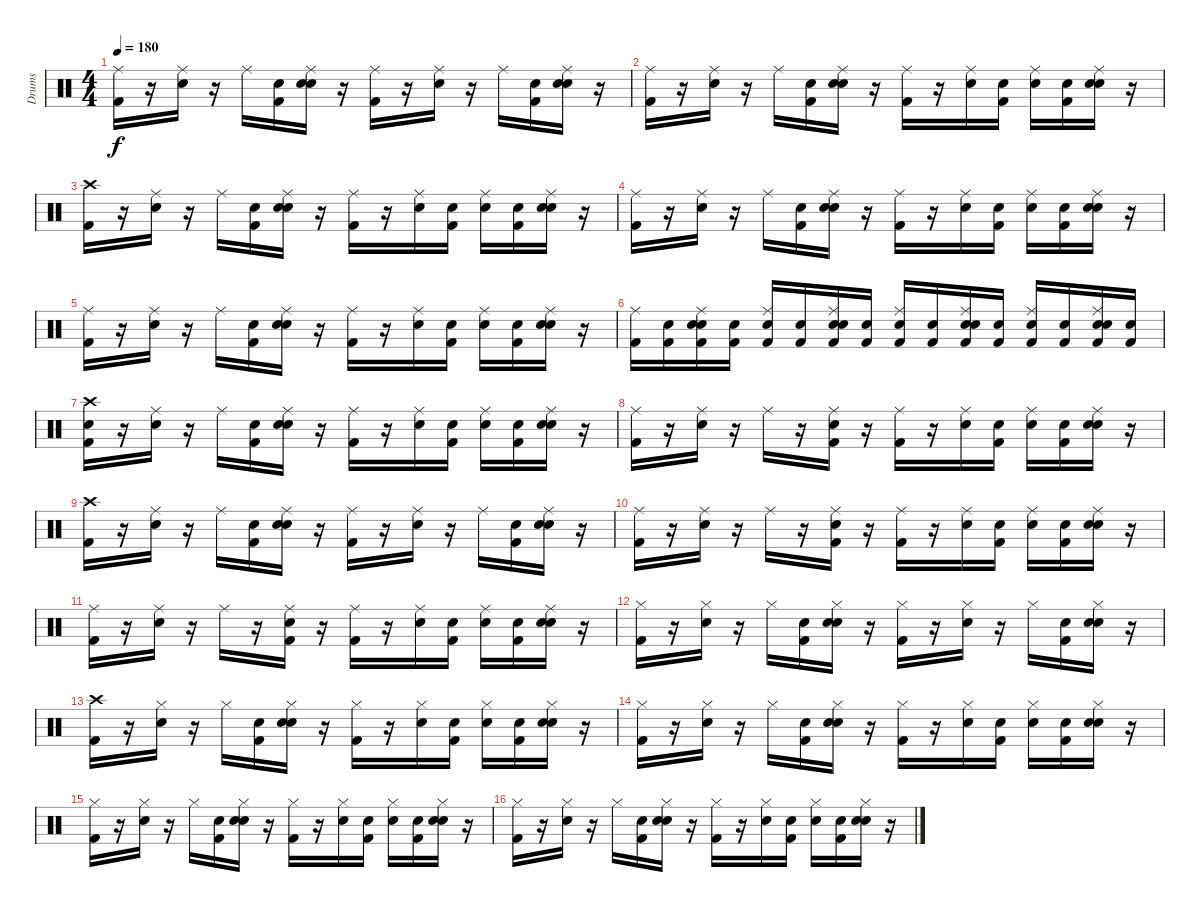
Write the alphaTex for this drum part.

\track ("Drums" "Drums") {instrument percussion}
\staff {score}
\articulation defaults
\ts (4 4)
\tempo 180
\clef neutral
\ks c
("Kick (hit) 2" "Ride (middle)").16{dy f} r.16 ("Snare (hit) 2" "Ride (middle)").16 r.16 "Ride (middle)".16 ("Snare (hit)" "Kick (hit) 2").16 ("Snare (hit)" "Snare (hit) 2" "Ride (middle)").16 r.16 ("Kick (hit) 2" "Ride (middle)").16 r.16 ("Snare (hit) 2" "Ride (middle)").16 r.16 "Ride (middle)".16 ("Snare (hit)" "Kick (hit) 2").16 ("Snare (hit)" "Snare (hit) 2" "Ride (middle)").16 r.16 |
("Kick (hit) 2" "Ride (middle)").16 r.16 ("Snare (hit) 2" "Ride (middle)").16 r.16 "Ride (middle)".16 ("Snare (hit)" "Kick (hit) 2").16 ("Snare (hit)" "Snare (hit) 2" "Ride (middle)").16 r.16 ("Kick (hit) 2" "Ride (middle)").16 r.16 ("Snare (hit) 2" "Ride (middle)").16 ("Snare (hit)" "Kick (hit) 2").16 ("Snare (hit)" "Ride (middle)").16 ("Snare (hit)" "Kick (hit) 2").16 ("Snare (hit)" "Snare (hit) 2" "Ride (middle)").16 r.16 |
("Kick (hit) 2" "Crash high (hit)").16 r.16 ("Snare (hit) 2" "Ride (middle)").16 r.16 "Ride (middle)".16 ("Snare (hit)" "Kick (hit) 2").16 ("Snare (hit)" "Snare (hit) 2" "Ride (middle)").16 r.16 ("Kick (hit) 2" "Ride (middle)").16 r.16 ("Snare (hit) 2" "Ride (middle)").16 ("Snare (hit)" "Kick (hit) 2").16 ("Snare (hit)" "Ride (middle)").16 ("Snare (hit)" "Kick (hit) 2").16 ("Snare (hit)" "Snare (hit) 2" "Ride (middle)").16 r.16 |
("Kick (hit) 2" "Ride (middle)").16 r.16 ("Snare (hit) 2" "Ride (middle)").16 r.16 "Ride (middle)".16 ("Snare (hit)" "Kick (hit) 2").16 ("Snare (hit)" "Snare (hit) 2" "Ride (middle)").16 r.16 ("Kick (hit) 2" "Ride (middle)").16 r.16 ("Snare (hit) 2" "Ride (middle)").16 ("Snare (hit)" "Kick (hit) 2").16 ("Snare (hit)" "Ride (middle)").16 ("Snare (hit)" "Kick (hit) 2").16 ("Snare (hit)" "Snare (hit) 2" "Ride (middle)").16 r.16 |
("Kick (hit) 2" "Ride (middle)").16 r.16 ("Snare (hit) 2" "Ride (middle)").16 r.16 "Ride (middle)".16 ("Snare (hit)" "Kick (hit) 2").16 ("Snare (hit)" "Snare (hit) 2" "Ride (middle)").16 r.16 ("Kick (hit) 2" "Ride (middle)").16 r.16 ("Snare (hit) 2" "Ride (middle)").16 ("Snare (hit)" "Kick (hit) 2").16 ("Snare (hit)" "Ride (middle)").16 ("Snare (hit)" "Kick (hit) 2").16 ("Snare (hit)" "Snare (hit) 2" "Ride (middle)").16 r.16 |
("Ride (middle)" "Kick (hit) 2").16 ("Snare (hit)" "Kick (hit) 2").16 ("Snare (hit)" "Snare (hit) 2" "Ride (middle)" "Kick (hit) 2").16 ("Snare (hit)" "Kick (hit) 2").16 ("Snare (hit)" "Ride (middle)" "Kick (hit) 2").16 ("Snare (hit)" "Kick (hit) 2").16 ("Snare (hit)" "Snare (hit) 2" "Ride (middle)" "Kick (hit) 2").16 ("Snare (hit)" "Kick (hit) 2").16 ("Snare (hit)" "Ride (middle)" "Kick (hit) 2").16 ("Snare (hit)" "Kick (hit) 2").16 ("Snare (hit)" "Ride (middle)" "Kick (hit) 2" "Snare (hit) 2").16 ("Snare (hit)" "Kick (hit) 2").16 ("Snare (hit)" "Ride (middle)" "Kick (hit) 2").16 ("Snare (hit)" "Kick (hit) 2").16 ("Snare (hit)" "Snare (hit) 2" "Ride (middle)" "Kick (hit) 2").16 ("Snare (hit)" "Kick (hit) 2").16 |
("Snare (hit)" "Crash high (hit)" "Kick (hit) 2").16 r.16 ("Snare (hit) 2" "Ride (middle)").16 r.16 "Ride (middle)".16 ("Snare (hit)" "Kick (hit) 2").16 ("Snare (hit)" "Snare (hit) 2" "Ride (middle)").16 r.16 ("Kick (hit) 2" "Ride (middle)").16 r.16 ("Snare (hit) 2" "Ride (middle)").16 ("Snare (hit)" "Kick (hit) 2").16 ("Snare (hit)" "Ride (middle)").16 ("Snare (hit)" "Kick (hit) 2").16 ("Snare (hit)" "Snare (hit) 2" "Ride (middle)").16 r.16 |
("Kick (hit) 2" "Ride (middle)").16 r.16 ("Snare (hit) 2" "Ride (middle)").16 r.16 "Ride (middle)".16 r.16 ("Kick (hit) 2" "Snare (hit) 2" "Ride (middle)").16 r.16 ("Kick (hit) 2" "Ride (middle)").16 r.16 ("Snare (hit) 2" "Ride (middle)").16 ("Snare (hit)" "Kick (hit) 2").16 ("Snare (hit)" "Ride (middle)").16 ("Snare (hit)" "Kick (hit) 2").16 ("Snare (hit)" "Ride (middle)" "Snare (hit) 2").16 r.16 |
("Kick (hit) 2" "Crash high (hit)").16 r.16 ("Snare (hit) 2" "Ride (middle)").16 r.16 "Ride (middle)".16 ("Snare (hit)" "Kick (hit) 2").16 ("Snare (hit)" "Snare (hit) 2" "Ride (middle)").16 r.16 ("Kick (hit) 2" "Ride (middle)").16 r.16 ("Snare (hit) 2" "Ride (middle)").16 r.16 "Ride (middle)".16 ("Snare (hit)" "Kick (hit) 2").16 ("Snare (hit)" "Snare (hit) 2" "Ride (middle)").16 r.16 |
("Kick (hit) 2" "Ride (middle)").16 r.16 ("Snare (hit) 2" "Ride (middle)").16 r.16 "Ride (middle)".16 r.16 ("Kick (hit) 2" "Snare (hit) 2" "Ride (middle)").16 r.16 ("Kick (hit) 2" "Ride (middle)").16 r.16 ("Snare (hit) 2" "Ride (middle)").16 ("Snare (hit)" "Kick (hit) 2").16 ("Snare (hit)" "Ride (middle)").16 ("Snare (hit)" "Kick (hit) 2").16 ("Snare (hit)" "Ride (middle)" "Snare (hit) 2").16 r.16 |
("Kick (hit) 2" "Ride (middle)").16 r.16 ("Snare (hit) 2" "Ride (middle)").16 r.16 "Ride (middle)".16 r.16 ("Kick (hit) 2" "Snare (hit) 2" "Ride (middle)").16 r.16 ("Kick (hit) 2" "Ride (middle)").16 r.16 ("Snare (hit) 2" "Ride (middle)").16 ("Snare (hit)" "Kick (hit) 2").16 ("Snare (hit)" "Ride (middle)").16 ("Snare (hit)" "Kick (hit) 2").16 ("Snare (hit)" "Ride (middle)" "Snare (hit) 2").16 r.16 |
("Kick (hit) 2" "Hi-Hat (closed)").16 r.16 ("Snare (hit) 2" "Hi-Hat (closed)").16 r.16 "Hi-Hat (closed)".16 ("Snare (hit)" "Kick (hit) 2").16 ("Snare (hit)" "Snare (hit) 2" "Hi-Hat (closed)").16 r.16 ("Kick (hit) 2" "Hi-Hat (closed)").16 r.16 ("Snare (hit) 2" "Hi-Hat (closed)").16 r.16 "Hi-Hat (closed)".16 ("Snare (hit)" "Kick (hit) 2").16 ("Snare (hit)" "Snare (hit) 2" "Hi-Hat (closed)").16 r.16 |
("Kick (hit) 2" "Crash high (hit)").16 r.16 ("Snare (hit) 2" "Hi-Hat (closed)").16 r.16 "Hi-Hat (closed)".16 ("Snare (hit)" "Kick (hit) 2").16 ("Snare (hit)" "Snare (hit) 2" "Hi-Hat (closed)").16 r.16 ("Kick (hit) 2" "Hi-Hat (closed)").16 r.16 ("Snare (hit) 2" "Hi-Hat (closed)").16 ("Snare (hit)" "Kick (hit) 2").16 ("Snare (hit)" "Hi-Hat (closed)").16 ("Snare (hit)" "Kick (hit) 2").16 ("Snare (hit)" "Snare (hit) 2" "Hi-Hat (closed)").16 r.16 |
("Kick (hit) 2" "Hi-Hat (closed)").16 r.16 ("Snare (hit) 2" "Hi-Hat (closed)").16 r.16 "Hi-Hat (closed)".16 ("Snare (hit)" "Kick (hit) 2").16 ("Snare (hit)" "Snare (hit) 2" "Hi-Hat (closed)").16 r.16 ("Kick (hit) 2" "Hi-Hat (closed)").16 r.16 ("Snare (hit) 2" "Hi-Hat (closed)").16 ("Snare (hit)" "Kick (hit) 2").16 ("Snare (hit)" "Hi-Hat (closed)").16 ("Snare (hit)" "Kick (hit) 2").16 ("Snare (hit)" "Snare (hit) 2" "Hi-Hat (closed)").16 r.16 |
("Kick (hit) 2" "Hi-Hat (closed)").16 r.16 ("Snare (hit) 2" "Hi-Hat (closed)").16 r.16 "Hi-Hat (closed)".16 ("Snare (hit)" "Kick (hit) 2").16 ("Snare (hit)" "Snare (hit) 2" "Hi-Hat (closed)").16 r.16 ("Kick (hit) 2" "Hi-Hat (closed)").16 r.16 ("Snare (hit) 2" "Hi-Hat (closed)").16 ("Snare (hit)" "Kick (hit) 2").16 ("Snare (hit)" "Hi-Hat (closed)").16 ("Snare (hit)" "Kick (hit) 2").16 ("Snare (hit)" "Snare (hit) 2" "Hi-Hat (closed)").16 r.16 |
("Kick (hit) 2" "Hi-Hat (closed)").16 r.16 ("Snare (hit) 2" "Hi-Hat (closed)").16 r.16 "Hi-Hat (closed)".16 ("Snare (hit)" "Kick (hit) 2").16 ("Snare (hit)" "Snare (hit) 2" "Hi-Hat (closed)").16 r.16 ("Kick (hit) 2" "Hi-Hat (closed)").16 r.16 ("Snare (hit) 2" "Hi-Hat (closed)").16 ("Snare (hit)" "Kick (hit) 2").16 ("Snare (hit)" "Hi-Hat (closed)").16 ("Snare (hit)" "Kick (hit) 2").16 ("Snare (hit)" "Snare (hit) 2" "Hi-Hat (closed)").16 r.16
